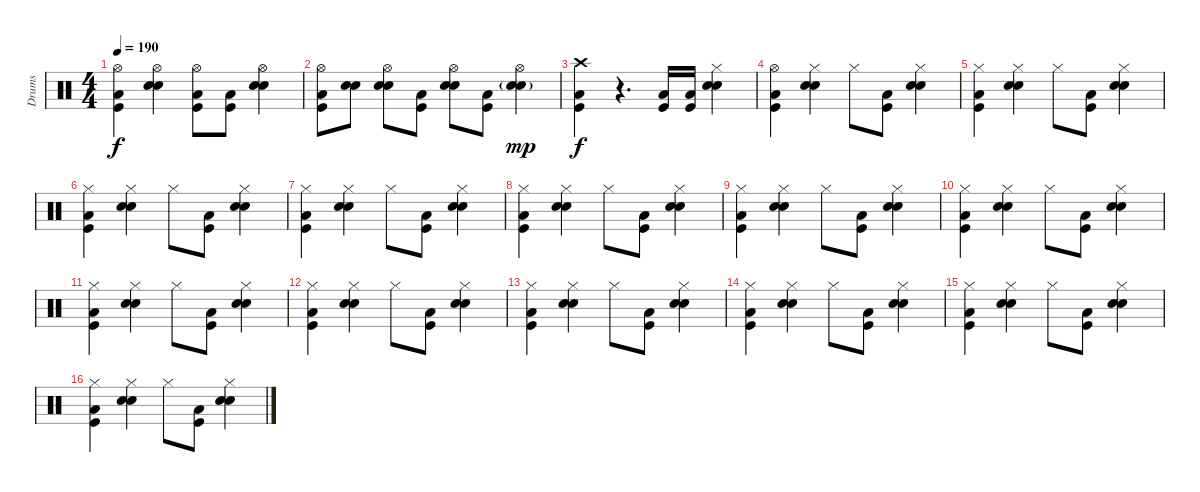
\track ("Drums" "Drums") {instrument percussion}
\staff {score}
\articulation defaults
\ts (4 4)
\tempo 190
\clef neutral
\ks c
("Hi-Hat (open)" "Kick (hit)" "Low Tom (hit)").4{dy f} ("Hi-Hat (open)" "Snare (hit) 2" "Electric Snare (hit)").4 ("Hi-Hat (open)" "Kick (hit)" "Low Tom (hit)").8 ("Kick (hit)" "Low Tom (hit)").8 ("Hi-Hat (open)" "Snare (hit) 2" "Electric Snare (hit)").4 |
("Hi-Hat (open)" "Kick (hit)" "Low Tom (hit)").8 ("Snare (hit) 2" "Electric Snare (hit)").8 ("Hi-Hat (open)" "Snare (hit) 2" "Electric Snare (hit)").8 ("Kick (hit)" "Low Tom (hit)").8 ("Hi-Hat (open)" "Snare (hit) 2" "Electric Snare (hit)").8 ("Kick (hit)" "Low Tom (hit)").8 ("Hi-Hat (open)" "Snare (hit) 2"{g} "Electric Snare (hit)"{g}).4{dy mp} |
("Crash high (hit)" "Kick (hit)" "Low Tom (hit)").4{dy f} r.4{d} ("Kick (hit)" "Low Tom (hit)").16 ("Kick (hit)" "Low Tom (hit)").16 ("Hi-Hat (closed)" "Snare (hit) 2" "Electric Snare (hit)").4 |
("Hi-Hat (open)" "Kick (hit)" "Low Tom (hit)").4 ("Hi-Hat (closed)" "Snare (hit) 2" "Electric Snare (hit)").4 "Hi-Hat (closed)".8 ("Kick (hit)" "Low Tom (hit)").8 ("Hi-Hat (closed)" "Snare (hit) 2" "Electric Snare (hit)").4 |
("Hi-Hat (closed)" "Kick (hit)" "Low Tom (hit)").4 ("Hi-Hat (closed)" "Snare (hit) 2" "Electric Snare (hit)").4 "Hi-Hat (closed)".8 ("Kick (hit)" "Low Tom (hit)").8 ("Hi-Hat (closed)" "Snare (hit) 2" "Electric Snare (hit)").4 |
("Hi-Hat (closed)" "Kick (hit)" "Low Tom (hit)").4 ("Hi-Hat (closed)" "Snare (hit) 2" "Electric Snare (hit)").4 "Hi-Hat (closed)".8 ("Kick (hit)" "Low Tom (hit)").8 ("Hi-Hat (closed)" "Snare (hit) 2" "Electric Snare (hit)").4 |
("Hi-Hat (closed)" "Kick (hit)" "Low Tom (hit)").4 ("Hi-Hat (closed)" "Snare (hit) 2" "Electric Snare (hit)").4 "Hi-Hat (closed)".8 ("Kick (hit)" "Low Tom (hit)").8 ("Hi-Hat (closed)" "Snare (hit) 2" "Electric Snare (hit)").4 |
("Hi-Hat (closed)" "Kick (hit)" "Low Tom (hit)").4 ("Hi-Hat (closed)" "Snare (hit) 2" "Electric Snare (hit)").4 "Hi-Hat (closed)".8 ("Kick (hit)" "Low Tom (hit)").8 ("Hi-Hat (closed)" "Snare (hit) 2" "Electric Snare (hit)").4 |
("Hi-Hat (closed)" "Kick (hit)" "Low Tom (hit)").4 ("Hi-Hat (closed)" "Snare (hit) 2" "Electric Snare (hit)").4 "Hi-Hat (closed)".8 ("Kick (hit)" "Low Tom (hit)").8 ("Hi-Hat (closed)" "Snare (hit) 2" "Electric Snare (hit)").4 |
("Hi-Hat (closed)" "Kick (hit)" "Low Tom (hit)").4 ("Hi-Hat (closed)" "Snare (hit) 2" "Electric Snare (hit)").4 "Hi-Hat (closed)".8 ("Kick (hit)" "Low Tom (hit)").8 ("Hi-Hat (closed)" "Snare (hit) 2" "Electric Snare (hit)").4 |
("Hi-Hat (closed)" "Kick (hit)" "Low Tom (hit)").4 ("Hi-Hat (closed)" "Snare (hit) 2" "Electric Snare (hit)").4 "Hi-Hat (closed)".8 ("Kick (hit)" "Low Tom (hit)").8 ("Hi-Hat (closed)" "Snare (hit) 2" "Electric Snare (hit)").4 |
("Hi-Hat (closed)" "Kick (hit)" "Low Tom (hit)").4 ("Hi-Hat (closed)" "Snare (hit) 2" "Electric Snare (hit)").4 "Hi-Hat (closed)".8 ("Kick (hit)" "Low Tom (hit)").8 ("Hi-Hat (closed)" "Snare (hit) 2" "Electric Snare (hit)").4 |
("Hi-Hat (closed)" "Kick (hit)" "Low Tom (hit)").4 ("Hi-Hat (closed)" "Snare (hit) 2" "Electric Snare (hit)").4 "Hi-Hat (closed)".8 ("Kick (hit)" "Low Tom (hit)").8 ("Hi-Hat (closed)" "Snare (hit) 2" "Electric Snare (hit)").4 |
("Hi-Hat (closed)" "Kick (hit)" "Low Tom (hit)").4 ("Hi-Hat (closed)" "Snare (hit) 2" "Electric Snare (hit)").4 "Hi-Hat (closed)".8 ("Kick (hit)" "Low Tom (hit)").8 ("Hi-Hat (closed)" "Snare (hit) 2" "Electric Snare (hit)").4 |
("Hi-Hat (closed)" "Kick (hit)" "Low Tom (hit)").4 ("Hi-Hat (closed)" "Snare (hit) 2" "Electric Snare (hit)").4 "Hi-Hat (closed)".8 ("Kick (hit)" "Low Tom (hit)").8 ("Hi-Hat (closed)" "Snare (hit) 2" "Electric Snare (hit)").4 |
("Hi-Hat (closed)" "Kick (hit)" "Low Tom (hit)").4 ("Hi-Hat (closed)" "Snare (hit) 2" "Electric Snare (hit)").4 "Hi-Hat (closed)".8 ("Kick (hit)" "Low Tom (hit)").8 ("Hi-Hat (closed)" "Snare (hit) 2" "Electric Snare (hit)").4
